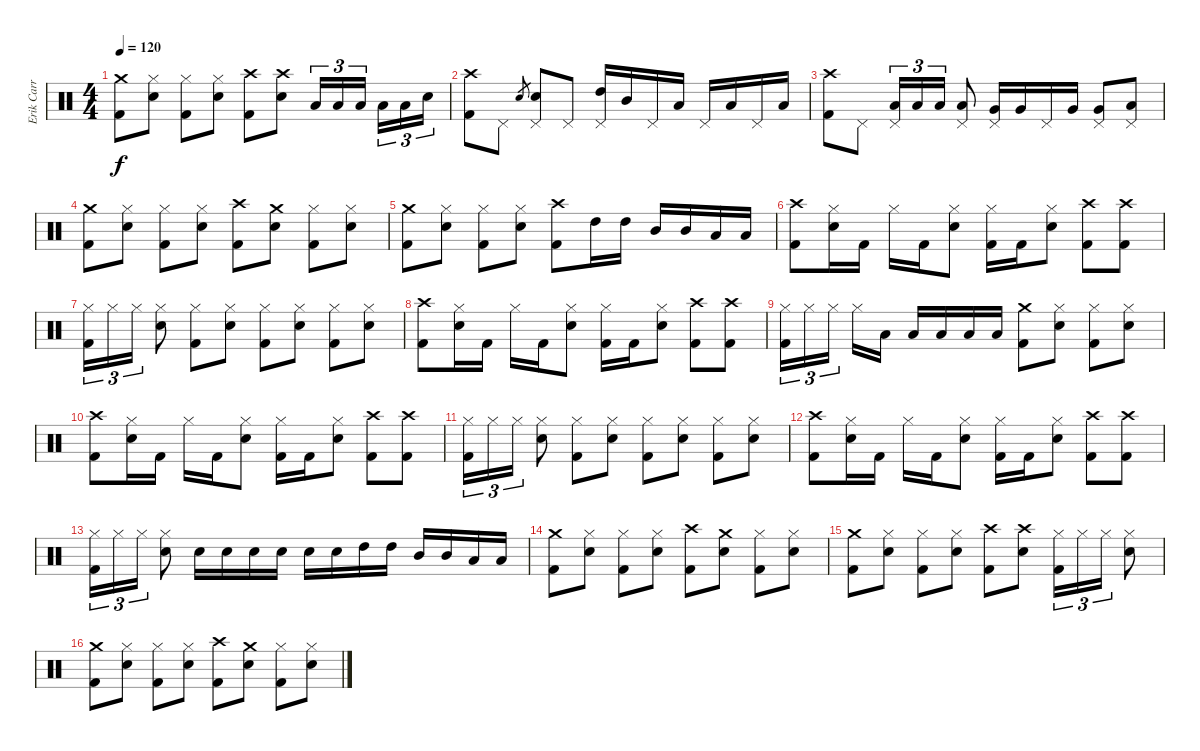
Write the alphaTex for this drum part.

\track ("Erik Carr / Drums" "Erik Carr ") {instrument percussion}
\staff {score}
\articulation defaults
\ts (4 4)
\tempo 120
\clef neutral
\ks c
("Kick (hit) 2" "Crash medium (hit)").8{dy f} ("Electric Snare (hit)" "Hi-Hat (closed)").8 ("Kick (hit) 2" "Hi-Hat (closed)").8 ("Electric Snare (hit)" "Hi-Hat (closed)").8 ("Kick (hit) 2" "Crash high (hit)").8 ("Electric Snare (hit)" "Crash high (hit)").8 "Low Tom (hit)".16{tu (3 2)} "Low Tom (hit)".16{tu (3 2)} "Low Tom (hit)".16{tu (3 2)} "Low Tom (hit)".16{tu (3 2)} "Low Tom (hit)".16{tu (3 2)} "Electric Snare (hit)".16{tu (3 2)} |
("Crash high (hit)" "Kick (hit) 2").8 "Pedal Hi-Hat (hit)".8 "Electric Snare (hit)".8{gr} ("Pedal Hi-Hat (hit)" "Electric Snare (hit)").8 "Pedal Hi-Hat (hit)".8 ("Pedal Hi-Hat (hit)" "High Tom (hit)").16 "Mid Tom (hit)".16 "Pedal Hi-Hat (hit)".16 "Low Tom (hit)".16 "Pedal Hi-Hat (hit)".16 "Low Tom (hit)".16 "Pedal Hi-Hat (hit)".16 "Low Tom (hit)".16 |
("Crash high (hit)" "Kick (hit) 2").8 "Pedal Hi-Hat (hit)".8 ("Pedal Hi-Hat (hit)" "Low Tom (hit)").16{tu (3 2)} "Low Tom (hit)".16{tu (3 2)} "Low Tom (hit)".16{tu (3 2)} ("Pedal Hi-Hat (hit)" "Low Tom (hit)").8 ("Pedal Hi-Hat (hit)" "Very Low Tom (hit)").16 "Very Low Tom (hit)".16 "Pedal Hi-Hat (hit)".16 "Very Low Tom (hit)".16 ("Pedal Hi-Hat (hit)" "Very Low Tom (hit)").8 ("Pedal Hi-Hat (hit)" "Low Floor Tom (hit)").8 |
("Crash medium (hit)" "Kick (hit) 2").8 ("Electric Snare (hit)" "Hi-Hat (closed)").8 ("Kick (hit) 2" "Hi-Hat (closed)").8 ("Electric Snare (hit)" "Hi-Hat (closed)").8 ("Crash high (hit)" "Kick (hit) 2").8 ("Electric Snare (hit)" "Crash medium (hit)").8 ("Kick (hit) 2" "Hi-Hat (closed)").8 ("Electric Snare (hit)" "Hi-Hat (closed)").8 |
("Kick (hit) 2" "Crash medium (hit)").8 ("Electric Snare (hit)" "Hi-Hat (closed)").8 ("Kick (hit) 2" "Hi-Hat (closed)").8 ("Electric Snare (hit)" "Hi-Hat (closed)").8 ("Kick (hit) 2" "Crash high (hit)").8 "High Tom (hit)".16 "High Tom (hit)".16 "Mid Tom (hit)".16 "Mid Tom (hit)".16 "Low Tom (hit)".16 "Low Tom (hit)".16 |
("Crash high (hit)" "Kick (hit) 2").8 ("Hi-Hat (closed)" "Electric Snare (hit)").16 "Kick (hit) 2".16 "Hi-Hat (closed)".16 "Kick (hit) 2".16 ("Hi-Hat (closed)" "Electric Snare (hit)").8 ("Hi-Hat (closed)" "Kick (hit) 2").16 "Kick (hit) 2".16 ("Hi-Hat (closed)" "Electric Snare (hit)").8 ("Crash high (hit)" "Kick (hit) 2").8 ("Crash high (hit)" "Kick (hit) 2").8 |
("Hi-Hat (closed)" "Kick (hit) 2").16{tu (3 2)} "Hi-Hat (closed)".16{tu (3 2)} "Hi-Hat (closed)".16{tu (3 2)} ("Hi-Hat (closed)" "Electric Snare (hit)").8 ("Hi-Hat (closed)" "Kick (hit) 2").8 ("Hi-Hat (closed)" "Electric Snare (hit)").8 ("Hi-Hat (closed)" "Kick (hit) 2").8 ("Hi-Hat (closed)" "Electric Snare (hit)").8 ("Hi-Hat (closed)" "Kick (hit) 2").8 ("Hi-Hat (closed)" "Electric Snare (hit)").8 |
("Crash high (hit)" "Kick (hit) 2").8 ("Hi-Hat (closed)" "Electric Snare (hit)").16 "Kick (hit) 2".16 "Hi-Hat (closed)".16 "Kick (hit) 2".16 ("Hi-Hat (closed)" "Electric Snare (hit)").8 ("Hi-Hat (closed)" "Kick (hit) 2").16 "Kick (hit) 2".16 ("Hi-Hat (closed)" "Electric Snare (hit)").8 ("Crash high (hit)" "Kick (hit) 2").8 ("Crash high (hit)" "Kick (hit) 2").8 |
("Hi-Hat (closed)" "Kick (hit) 2").16{tu (3 2)} "Hi-Hat (closed)".16{tu (3 2)} "Hi-Hat (closed)".16{tu (3 2)} "Hi-Hat (closed)".16 "Low Tom (hit)".16 "Low Tom (hit)".16 "Low Tom (hit)".16 "Low Tom (hit)".16 "Low Tom (hit)".16 ("Crash medium (hit)" "Kick (hit) 2").8 ("Hi-Hat (closed)" "Electric Snare (hit)").8 ("Hi-Hat (closed)" "Kick (hit) 2").8 ("Hi-Hat (closed)" "Electric Snare (hit)").8 |
("Crash high (hit)" "Kick (hit) 2").8 ("Hi-Hat (closed)" "Electric Snare (hit)").16 "Kick (hit) 2".16 "Hi-Hat (closed)".16 "Kick (hit) 2".16 ("Hi-Hat (closed)" "Electric Snare (hit)").8 ("Hi-Hat (closed)" "Kick (hit) 2").16 "Kick (hit) 2".16 ("Hi-Hat (closed)" "Electric Snare (hit)").8 ("Crash high (hit)" "Kick (hit) 2").8 ("Crash high (hit)" "Kick (hit) 2").8 |
("Hi-Hat (closed)" "Kick (hit) 2").16{tu (3 2)} "Hi-Hat (closed)".16{tu (3 2)} "Hi-Hat (closed)".16{tu (3 2)} ("Hi-Hat (closed)" "Electric Snare (hit)").8 ("Hi-Hat (closed)" "Kick (hit) 2").8 ("Hi-Hat (closed)" "Electric Snare (hit)").8 ("Hi-Hat (closed)" "Kick (hit) 2").8 ("Hi-Hat (closed)" "Electric Snare (hit)").8 ("Hi-Hat (closed)" "Kick (hit) 2").8 ("Hi-Hat (closed)" "Electric Snare (hit)").8 |
("Crash high (hit)" "Kick (hit) 2").8 ("Hi-Hat (closed)" "Electric Snare (hit)").16 "Kick (hit) 2".16 "Hi-Hat (closed)".16 "Kick (hit) 2".16 ("Hi-Hat (closed)" "Electric Snare (hit)").8 ("Hi-Hat (closed)" "Kick (hit) 2").16 "Kick (hit) 2".16 ("Hi-Hat (closed)" "Electric Snare (hit)").8 ("Crash high (hit)" "Kick (hit) 2").8 ("Crash high (hit)" "Kick (hit) 2").8 |
("Hi-Hat (closed)" "Kick (hit) 2").16{tu (3 2)} "Hi-Hat (closed)".16{tu (3 2)} "Hi-Hat (closed)".16{tu (3 2)} ("Hi-Hat (closed)" "Electric Snare (hit)").8 "Electric Snare (hit)".16 "Electric Snare (hit)".16 "Electric Snare (hit)".16 "Electric Snare (hit)".16 "Electric Snare (hit)".16 "Electric Snare (hit)".16 "High Tom (hit)".16 "High Tom (hit)".16 "Mid Tom (hit)".16 "Mid Tom (hit)".16 "Low Tom (hit)".16 "Low Tom (hit)".16 |
("Crash medium (hit)" "Kick (hit) 2").8 ("Electric Snare (hit)" "Hi-Hat (closed)").8 ("Kick (hit) 2" "Hi-Hat (closed)").8 ("Electric Snare (hit)" "Hi-Hat (closed)").8 ("Crash high (hit)" "Kick (hit) 2").8 ("Electric Snare (hit)" "Crash medium (hit)").8 ("Kick (hit) 2" "Hi-Hat (closed)").8 ("Electric Snare (hit)" "Hi-Hat (closed)").8 |
("Kick (hit) 2" "Crash medium (hit)").8 ("Electric Snare (hit)" "Hi-Hat (closed)").8 ("Kick (hit) 2" "Hi-Hat (closed)").8 ("Electric Snare (hit)" "Hi-Hat (closed)").8 ("Kick (hit) 2" "Crash high (hit)").8 ("Electric Snare (hit)" "Crash high (hit)").8 ("Kick (hit) 2" "Hi-Hat (closed)").16{tu (3 2)} "Hi-Hat (closed)".16{tu (3 2)} "Hi-Hat (closed)".16{tu (3 2)} ("Electric Snare (hit)" "Hi-Hat (closed)").8 |
("Crash medium (hit)" "Kick (hit) 2").8 ("Electric Snare (hit)" "Hi-Hat (closed)").8 ("Kick (hit) 2" "Hi-Hat (closed)").8 ("Electric Snare (hit)" "Hi-Hat (closed)").8 ("Crash high (hit)" "Kick (hit) 2").8 ("Electric Snare (hit)" "Crash medium (hit)").8 ("Kick (hit) 2" "Hi-Hat (closed)").8 ("Electric Snare (hit)" "Hi-Hat (closed)").8
